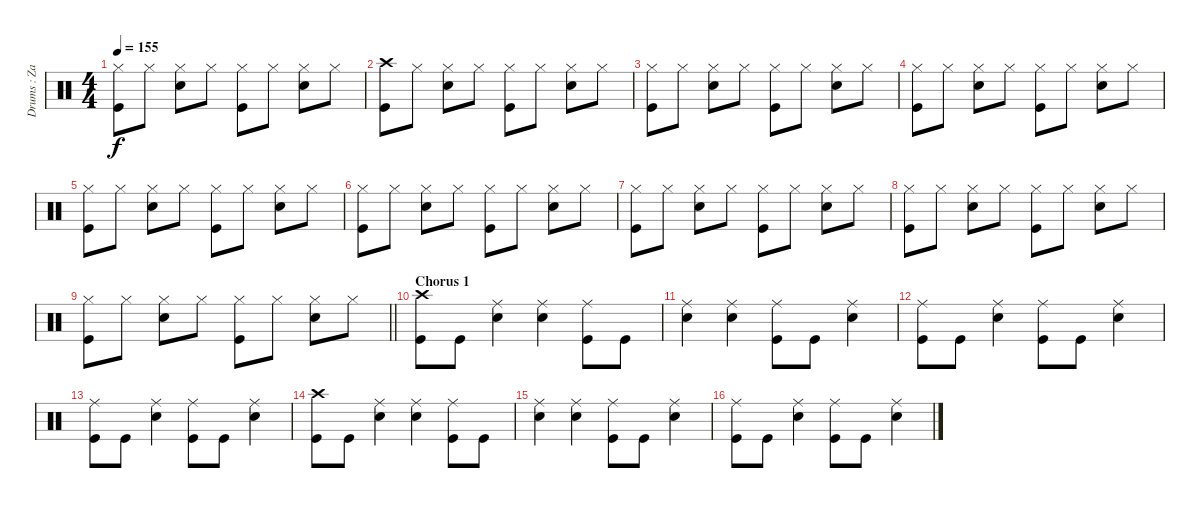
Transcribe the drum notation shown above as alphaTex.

\track ("Drums : Zach Lind" "Drums : Za") {instrument percussion}
\staff {score}
\articulation defaults
\ts (4 4)
\tempo 155
\clef neutral
\ks c
("Hi-Hat (closed)" "Kick (hit)").8{dy f} "Hi-Hat (closed)".8 ("Hi-Hat (closed)" "Snare (hit) 2").8 "Hi-Hat (closed)".8 ("Hi-Hat (closed)" "Kick (hit)").8 "Hi-Hat (closed)".8 ("Hi-Hat (closed)" "Snare (hit) 2").8 "Hi-Hat (closed)".8 |
("Crash high (hit)" "Kick (hit)").8 "Hi-Hat (closed)".8 ("Hi-Hat (closed)" "Snare (hit) 2").8 "Hi-Hat (closed)".8 ("Hi-Hat (closed)" "Kick (hit)").8 "Hi-Hat (closed)".8 ("Hi-Hat (closed)" "Snare (hit) 2").8 "Hi-Hat (closed)".8 |
("Hi-Hat (closed)" "Kick (hit)").8 "Hi-Hat (closed)".8 ("Hi-Hat (closed)" "Snare (hit) 2").8 "Hi-Hat (closed)".8 ("Hi-Hat (closed)" "Kick (hit)").8 "Hi-Hat (closed)".8 ("Hi-Hat (closed)" "Snare (hit) 2").8 "Hi-Hat (closed)".8 |
("Hi-Hat (closed)" "Kick (hit)").8 "Hi-Hat (closed)".8 ("Hi-Hat (closed)" "Snare (hit) 2").8 "Hi-Hat (closed)".8 ("Hi-Hat (closed)" "Kick (hit)").8 "Hi-Hat (closed)".8 ("Hi-Hat (closed)" "Snare (hit) 2").8 "Hi-Hat (closed)".8 |
("Hi-Hat (closed)" "Kick (hit)").8 "Hi-Hat (closed)".8 ("Hi-Hat (closed)" "Snare (hit) 2").8 "Hi-Hat (closed)".8 ("Hi-Hat (closed)" "Kick (hit)").8 "Hi-Hat (closed)".8 ("Hi-Hat (closed)" "Snare (hit) 2").8 "Hi-Hat (closed)".8 |
("Hi-Hat (closed)" "Kick (hit)").8 "Hi-Hat (closed)".8 ("Hi-Hat (closed)" "Snare (hit) 2").8 "Hi-Hat (closed)".8 ("Hi-Hat (closed)" "Kick (hit)").8 "Hi-Hat (closed)".8 ("Hi-Hat (closed)" "Snare (hit) 2").8 "Hi-Hat (closed)".8 |
("Hi-Hat (closed)" "Kick (hit)").8 "Hi-Hat (closed)".8 ("Hi-Hat (closed)" "Snare (hit) 2").8 "Hi-Hat (closed)".8 ("Hi-Hat (closed)" "Kick (hit)").8 "Hi-Hat (closed)".8 ("Hi-Hat (closed)" "Snare (hit) 2").8 "Hi-Hat (closed)".8 |
("Hi-Hat (closed)" "Kick (hit)").8 "Hi-Hat (closed)".8 ("Hi-Hat (closed)" "Snare (hit) 2").8 "Hi-Hat (closed)".8 ("Hi-Hat (closed)" "Kick (hit)").8 "Hi-Hat (closed)".8 ("Hi-Hat (closed)" "Snare (hit) 2").8 "Hi-Hat (closed)".8 |
\barLineRight lightlight
("Hi-Hat (closed)" "Kick (hit)").8 "Hi-Hat (closed)".8 ("Hi-Hat (closed)" "Snare (hit) 2").8 "Hi-Hat (closed)".8 ("Hi-Hat (closed)" "Kick (hit)").8 "Hi-Hat (closed)".8 ("Hi-Hat (closed)" "Snare (hit) 2").8 "Hi-Hat (closed)".8 |
\section ("" "Chorus 1")
("Crash high (hit)" "Kick (hit)").8 "Kick (hit)".8 ("Ride (middle)" "Snare (hit) 2").4 ("Ride (middle)" "Snare (hit) 2").4 ("Ride (middle)" "Kick (hit)").8 "Kick (hit)".8 |
("Ride (middle)" "Snare (hit) 2").4 ("Ride (middle)" "Snare (hit) 2").4 ("Ride (middle)" "Kick (hit)").8 "Kick (hit)".8 ("Ride (middle)" "Snare (hit) 2").4 |
("Ride (middle)" "Kick (hit)").8 "Kick (hit)".8 ("Ride (middle)" "Snare (hit) 2").4 ("Ride (middle)" "Kick (hit)").8 "Kick (hit)".8 ("Ride (middle)" "Snare (hit) 2").4 |
("Ride (middle)" "Kick (hit)").8 "Kick (hit)".8 ("Ride (middle)" "Snare (hit) 2").4 ("Ride (middle)" "Kick (hit)").8 "Kick (hit)".8 ("Ride (middle)" "Snare (hit) 2").4 |
("Crash high (hit)" "Kick (hit)").8 "Kick (hit)".8 ("Ride (middle)" "Snare (hit) 2").4 ("Ride (middle)" "Snare (hit) 2").4 ("Ride (middle)" "Kick (hit)").8 "Kick (hit)".8 |
("Ride (middle)" "Snare (hit) 2").4 ("Ride (middle)" "Snare (hit) 2").4 ("Ride (middle)" "Kick (hit)").8 "Kick (hit)".8 ("Ride (middle)" "Snare (hit) 2").4 |
("Ride (middle)" "Kick (hit)").8 "Kick (hit)".8 ("Ride (middle)" "Snare (hit) 2").4 ("Ride (middle)" "Kick (hit)").8 "Kick (hit)".8 ("Ride (middle)" "Snare (hit) 2").4
